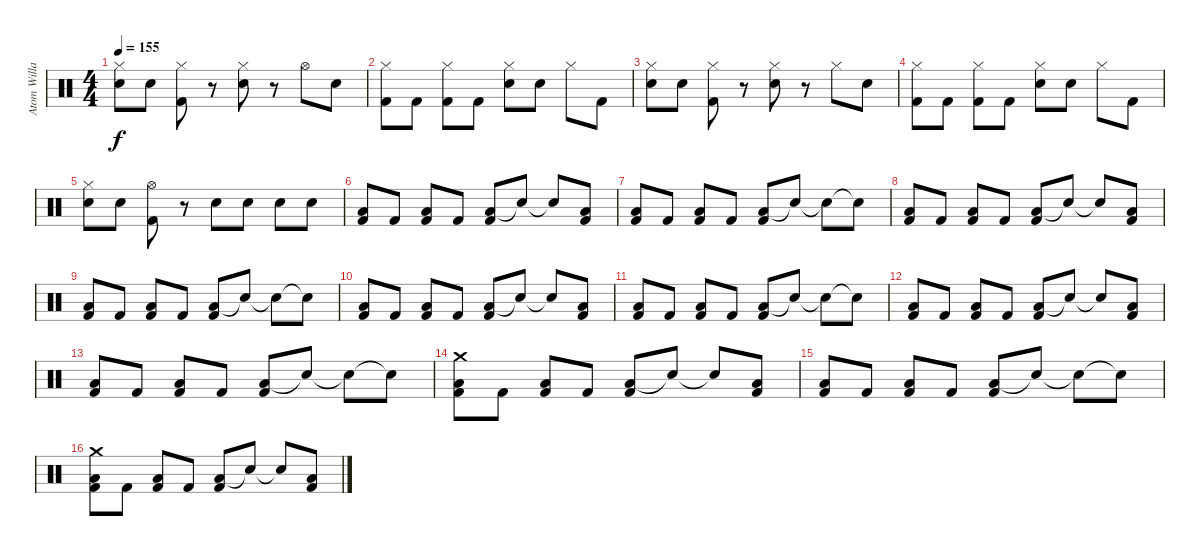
\track ("Atom Willard Drums" "Atom Willa") {instrument percussion}
\staff {score}
\articulation defaults
\ts (4 4)
\tempo 155
\clef neutral
\ks c
("Snare (hit)" "Hi-Hat (closed)").8{dy f} "Electric Snare (hit)".8 ("Kick (hit) 2" "Hi-Hat (closed)").8 r.8 ("Electric Snare (hit)" "Hi-Hat (closed)").8 r.8 "Hi-Hat (open)".8 "Snare (hit)".8 |
("Kick (hit) 2" "Hi-Hat (closed)").8 "Kick (hit) 2".8 ("Kick (hit) 2" "Hi-Hat (closed)").8 "Kick (hit) 2".8 ("Electric Snare (hit)" "Hi-Hat (closed)").8 "Snare (hit)".8 "Hi-Hat (closed)".8 "Kick (hit) 2".8 |
("Snare (hit)" "Hi-Hat (closed)").8 "Electric Snare (hit)".8 ("Kick (hit) 2" "Hi-Hat (closed)").8 r.8 ("Electric Snare (hit)" "Hi-Hat (closed)").8 r.8 "Hi-Hat (closed)".8 "Snare (hit)".8 |
("Kick (hit) 2" "Hi-Hat (closed)").8 "Kick (hit) 2".8 ("Kick (hit) 2" "Hi-Hat (closed)").8 "Kick (hit) 2".8 ("Electric Snare (hit)" "Hi-Hat (closed)").8 "Snare (hit)".8 "Hi-Hat (closed)".8 "Kick (hit) 2".8 |
("Snare (hit)" "Hi-Hat (closed)").8 "Electric Snare (hit)".8 ("Kick (hit) 2" "Hi-Hat (open)").8 r.8 "Electric Snare (hit)".8 "Electric Snare (hit)".8 "Electric Snare (hit)".8 "Snare (hit)".8 |
("Low Tom (hit)" "Kick (hit) 2").8 "Kick (hit) 2".8 ("Low Tom (hit)" "Kick (hit) 2").8 "Kick (hit) 2".8 ("Low Tom (hit)" "Kick (hit) 2").8 "Snare (hit)"{t}.8 "Snare (hit)"{t}.8 ("Low Tom (hit)" "Kick (hit) 2").8 |
("Low Tom (hit)" "Kick (hit) 2").8 "Kick (hit) 2".8 ("Low Tom (hit)" "Kick (hit) 2").8 "Kick (hit) 2".8 ("Low Tom (hit)" "Kick (hit) 2").8 "Snare (hit)"{t}.8 "Snare (hit)"{t}.8 "Snare (hit)"{t}.8 |
("Low Tom (hit)" "Kick (hit) 2").8 "Kick (hit) 2".8 ("Low Tom (hit)" "Kick (hit) 2").8 "Kick (hit) 2".8 ("Low Tom (hit)" "Kick (hit) 2").8 "Snare (hit)"{t}.8 "Snare (hit)"{t}.8 ("Low Tom (hit)" "Kick (hit) 2").8 |
("Low Tom (hit)" "Kick (hit) 2").8 "Kick (hit) 2".8 ("Low Tom (hit)" "Kick (hit) 2").8 "Kick (hit) 2".8 ("Low Tom (hit)" "Kick (hit) 2").8 "Snare (hit)"{t}.8 "Snare (hit)"{t}.8 "Snare (hit)"{t}.8 |
("Low Tom (hit)" "Kick (hit) 2").8 "Kick (hit) 2".8 ("Low Tom (hit)" "Kick (hit) 2").8 "Kick (hit) 2".8 ("Low Tom (hit)" "Kick (hit) 2").8 "Snare (hit)"{t}.8 "Snare (hit)"{t}.8 ("Low Tom (hit)" "Kick (hit) 2").8 |
("Low Tom (hit)" "Kick (hit) 2").8 "Kick (hit) 2".8 ("Low Tom (hit)" "Kick (hit) 2").8 "Kick (hit) 2".8 ("Low Tom (hit)" "Kick (hit) 2").8 "Snare (hit)"{t}.8 "Snare (hit)"{t}.8 "Snare (hit)"{t}.8 |
("Low Tom (hit)" "Kick (hit) 2").8 "Kick (hit) 2".8 ("Low Tom (hit)" "Kick (hit) 2").8 "Kick (hit) 2".8 ("Low Tom (hit)" "Kick (hit) 2").8 "Snare (hit)"{t}.8 "Snare (hit)"{t}.8 ("Low Tom (hit)" "Kick (hit) 2").8 |
("Low Tom (hit)" "Kick (hit) 2").8 "Kick (hit) 2".8 ("Low Tom (hit)" "Kick (hit) 2").8 "Kick (hit) 2".8 ("Low Tom (hit)" "Kick (hit) 2").8 "Snare (hit)"{t}.8 "Snare (hit)"{t}.8 "Snare (hit)"{t}.8 |
("Crash medium (hit)" "Low Tom (hit)" "Kick (hit) 2").8 "Kick (hit) 2".8 ("Low Tom (hit)" "Kick (hit) 2").8 "Kick (hit) 2".8 ("Low Tom (hit)" "Kick (hit) 2").8 "Snare (hit)"{t}.8 "Snare (hit)"{t}.8 ("Low Tom (hit)" "Kick (hit) 2").8 |
("Low Tom (hit)" "Kick (hit) 2").8 "Kick (hit) 2".8 ("Low Tom (hit)" "Kick (hit) 2").8 "Kick (hit) 2".8 ("Low Tom (hit)" "Kick (hit) 2").8 "Snare (hit)"{t}.8 "Snare (hit)"{t}.8 "Snare (hit)"{t}.8 |
("Crash medium (hit)" "Low Tom (hit)" "Kick (hit) 2").8 "Kick (hit) 2".8 ("Low Tom (hit)" "Kick (hit) 2").8 "Kick (hit) 2".8 ("Low Tom (hit)" "Kick (hit) 2").8 "Snare (hit)"{t}.8 "Snare (hit)"{t}.8 ("Low Tom (hit)" "Kick (hit) 2").8
